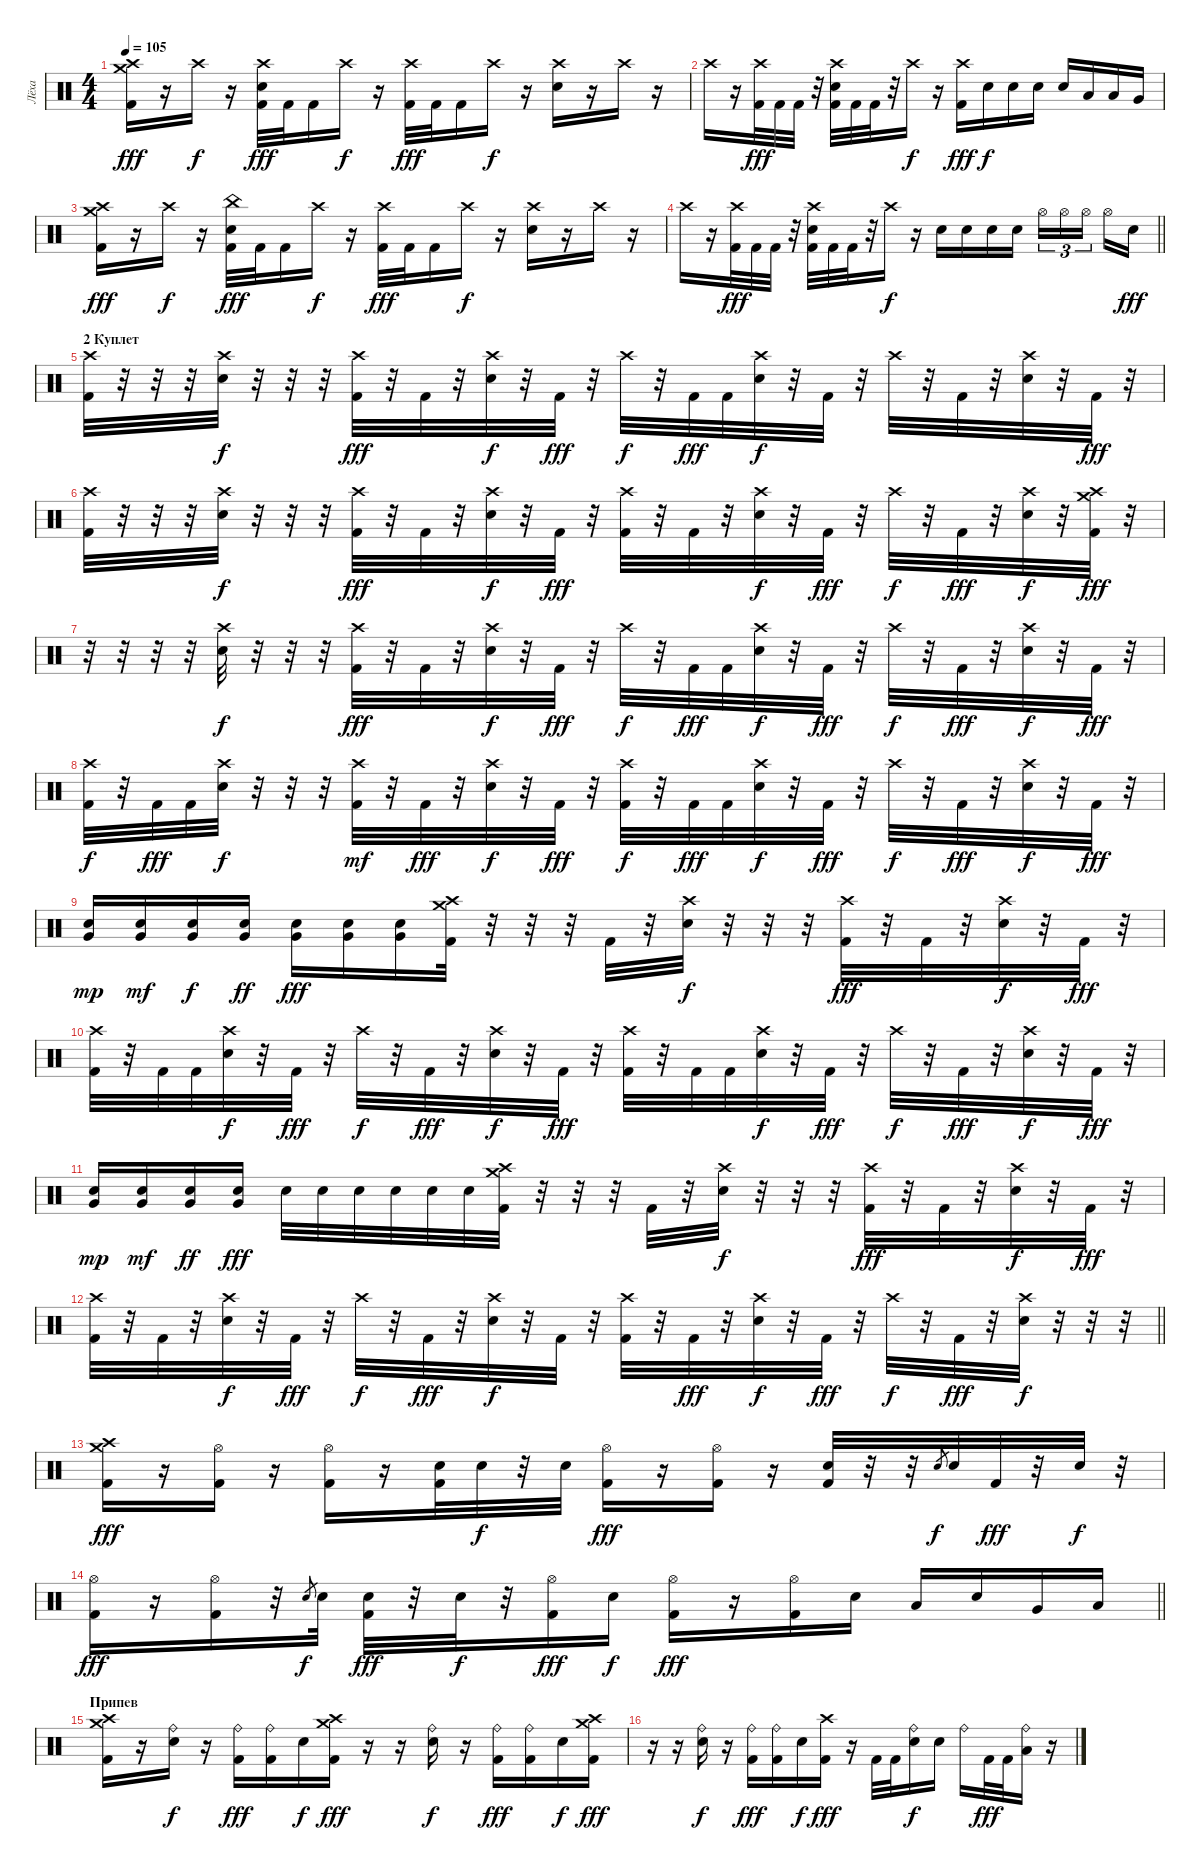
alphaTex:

\track ("Лёха" "Лёха") {solo instrument percussion}
\staff {score}
\articulation defaults
\ts (4 4)
\tempo 105
\clef neutral
\ks c
("Crash high (hit)" "Crash medium (hit)" "Kick (hit) 2").16{dy fff} r.16 "Crash high (hit)".16{dy f} r.16 ("Crash high (hit)" "Electric Snare (hit)" "Kick (hit) 2").32{dy fff} "Kick (hit) 2".32 "Kick (hit) 2".16 "Crash high (hit)".16{dy f} r.16 ("Crash high (hit)" "Kick (hit) 2").32{dy fff} "Kick (hit) 2".32 "Kick (hit) 2".16 "Crash high (hit)".16{dy f} r.16 ("Crash high (hit)" "Electric Snare (hit)").16 r.16 "Crash high (hit)".16 r.16 |
"Crash high (hit)".16 r.16 ("Crash high (hit)" "Kick (hit) 2").32{dy fff} "Kick (hit) 2".32 "Kick (hit) 2".32 r.32 ("Crash high (hit)" "Electric Snare (hit)" "Kick (hit) 2").32 "Kick (hit) 2".32 "Kick (hit) 2".32 r.32 "Crash high (hit)".16{dy f} r.16 ("Crash high (hit)" "Kick (hit) 2").16{dy fff} "Electric Snare (hit)".16{dy f} "Electric Snare (hit)".16 "Electric Snare (hit)".16 "Electric Snare (hit)".16 "Low Tom (hit)".16 "Low Tom (hit)".16 "Very Low Tom (hit)".16 |
("Crash high (hit)" "Crash medium (hit)" "Kick (hit) 2").16{dy fff} r.16 "Crash high (hit)".16{dy f} r.16 ("China (hit)" "Electric Snare (hit)" "Kick (hit) 2").32{dy fff} "Kick (hit) 2".32 "Kick (hit) 2".16 "Crash high (hit)".16{dy f} r.16 ("Crash high (hit)" "Kick (hit) 2").32{dy fff} "Kick (hit) 2".32 "Kick (hit) 2".16 "Crash high (hit)".16{dy f} r.16 ("Crash high (hit)" "Electric Snare (hit)").16 r.16 "Crash high (hit)".16 r.16 |
\barLineRight lightlight "Crash high (hit)".16
r.16 ("Crash high (hit)" "Kick (hit) 2").32{dy fff} "Kick (hit) 2".32 "Kick (hit) 2".32 r.32 ("Crash high (hit)" "Electric Snare (hit)" "Kick (hit) 2").32 "Kick (hit) 2".32 "Kick (hit) 2".32 r.32 "Crash high (hit)".16{dy f} r.16 "Electric Snare (hit)".16 "Electric Snare (hit)".16 "Electric Snare (hit)".16 "Electric Snare (hit)".16 "Hi-Hat (open)".16{tu (3 2)} "Hi-Hat (open)".16{tu (3 2)} "Hi-Hat (open)".16{tu (3 2) beam splitsecondary} "Hi-Hat (open)".16 "Electric Snare (hit)".16{dy fff} |
\section ("" "2 Куплет")
("Crash high (hit)" "Kick (hit) 2").32 r.32 r.32 r.32 ("Crash high (hit)" "Electric Snare (hit)").32{dy f} r.32 r.32 r.32 ("Crash high (hit)" "Kick (hit) 2").32{dy fff} r.32 "Kick (hit) 2".32 r.32 ("Crash high (hit)" "Electric Snare (hit)").32{dy f} r.32 "Kick (hit) 2".32{dy fff} r.32 "Crash high (hit)".32{dy f} r.32 "Kick (hit) 2".32{dy fff} "Kick (hit) 2".32 ("Crash high (hit)" "Electric Snare (hit)").32{dy f} r.32 "Kick (hit) 2".32 r.32 "Crash high (hit)".32 r.32 "Kick (hit) 2".32 r.32 ("Crash high (hit)" "Electric Snare (hit)").32 r.32 "Kick (hit) 2".32{dy fff} r.32 |
("Crash high (hit)" "Kick (hit) 2").32 r.32 r.32 r.32 ("Crash high (hit)" "Electric Snare (hit)").32{dy f} r.32 r.32 r.32 ("Crash high (hit)" "Kick (hit) 2").32{dy fff} r.32 "Kick (hit) 2".32 r.32 ("Crash high (hit)" "Electric Snare (hit)").32{dy f} r.32 "Kick (hit) 2".32{dy fff} r.32 ("Crash high (hit)" "Kick (hit) 2").32 r.32 "Kick (hit) 2".32 r.32 ("Crash high (hit)" "Electric Snare (hit)").32{dy f} r.32 "Kick (hit) 2".32{dy fff} r.32 "Crash high (hit)".32{dy f} r.32 "Kick (hit) 2".32{dy fff} r.32 ("Crash high (hit)" "Electric Snare (hit)").32{dy f} r.32 ("Crash high (hit)" "Crash medium (hit)" "Kick (hit) 2").32{dy fff} r.32 |
r.32 r.32 r.32 r.32 ("Crash high (hit)" "Electric Snare (hit)").32{dy f} r.32 r.32 r.32 ("Crash high (hit)" "Kick (hit) 2").32{dy fff} r.32 "Kick (hit) 2".32 r.32 ("Crash high (hit)" "Electric Snare (hit)").32{dy f} r.32 "Kick (hit) 2".32{dy fff} r.32 "Crash high (hit)".32{dy f} r.32 "Kick (hit) 2".32{dy fff} "Kick (hit) 2".32 ("Crash high (hit)" "Electric Snare (hit)").32{dy f} r.32 "Kick (hit) 2".32{dy fff} r.32 "Crash high (hit)".32{dy f} r.32 "Kick (hit) 2".32{dy fff} r.32 ("Crash high (hit)" "Electric Snare (hit)").32{dy f} r.32 "Kick (hit) 2".32{dy fff} r.32 |
("Crash high (hit)" "Kick (hit) 2").32{dy f} r.32 "Kick (hit) 2".32{dy fff} "Kick (hit) 2".32 ("Crash high (hit)" "Electric Snare (hit)").32{dy f} r.32 r.32 r.32 ("Crash high (hit)" "Kick (hit) 2").32{dy mf} r.32 "Kick (hit) 2".32{dy fff} r.32 ("Crash high (hit)" "Electric Snare (hit)").32{dy f} r.32 "Kick (hit) 2".32{dy fff} r.32 ("Crash high (hit)" "Kick (hit) 2").32{dy f} r.32 "Kick (hit) 2".32{dy fff} "Kick (hit) 2".32 ("Crash high (hit)" "Electric Snare (hit)").32{dy f} r.32 "Kick (hit) 2".32{dy fff} r.32 "Crash high (hit)".32{dy f} r.32 "Kick (hit) 2".32{dy fff} r.32 ("Crash high (hit)" "Electric Snare (hit)").32{dy f} r.32 "Kick (hit) 2".32{dy fff} r.32 |
("Very Low Tom (hit)" "Electric Snare (hit)").16{dy mp} ("Very Low Tom (hit)" "Electric Snare (hit)").16{dy mf} ("Very Low Tom (hit)" "Electric Snare (hit)").16{dy f} ("Very Low Tom (hit)" "Electric Snare (hit)").16{dy ff} ("Very Low Tom (hit)" "Electric Snare (hit)").16{dy fff} ("Very Low Tom (hit)" "Electric Snare (hit)").16 ("Very Low Tom (hit)" "Electric Snare (hit)").16 ("Crash medium (hit)" "Crash high (hit)" "Kick (hit) 2").32 r.32 r.32 r.32 "Kick (hit) 2".32 r.32 ("Crash high (hit)" "Electric Snare (hit)").32{dy f} r.32 r.32 r.32 ("Crash high (hit)" "Kick (hit) 2").32{dy fff} r.32 "Kick (hit) 2".32 r.32 ("Crash high (hit)" "Electric Snare (hit)").32{dy f} r.32 "Kick (hit) 2".32{dy fff} r.32 |
("Crash high (hit)" "Kick (hit) 2").32 r.32 "Kick (hit) 2".32 "Kick (hit) 2".32 ("Crash high (hit)" "Electric Snare (hit)").32{dy f} r.32 "Kick (hit) 2".32{dy fff} r.32 "Crash high (hit)".32{dy f} r.32 "Kick (hit) 2".32{dy fff} r.32 ("Crash high (hit)" "Electric Snare (hit)").32{dy f} r.32 "Kick (hit) 2".32{dy fff} r.32 ("Crash high (hit)" "Kick (hit) 2").32 r.32 "Kick (hit) 2".32 "Kick (hit) 2".32 ("Crash high (hit)" "Electric Snare (hit)").32{dy f} r.32 "Kick (hit) 2".32{dy fff} r.32 "Crash high (hit)".32{dy f} r.32 "Kick (hit) 2".32{dy fff} r.32 ("Crash high (hit)" "Electric Snare (hit)").32{dy f} r.32 "Kick (hit) 2".32{dy fff} r.32 |
("Very Low Tom (hit)" "Electric Snare (hit)").16{dy mp} ("Very Low Tom (hit)" "Electric Snare (hit)").16{dy mf} ("Very Low Tom (hit)" "Electric Snare (hit)").16{dy ff} ("Very Low Tom (hit)" "Electric Snare (hit)").16{dy fff} "Electric Snare (hit)".32 "Electric Snare (hit)".32 "Electric Snare (hit)".32 "Electric Snare (hit)".32 "Electric Snare (hit)".32 "Electric Snare (hit)".32 ("Crash medium (hit)" "Crash high (hit)" "Kick (hit) 2").32 r.32 r.32 r.32 "Kick (hit) 2".32 r.32 ("Crash high (hit)" "Electric Snare (hit)").32{dy f} r.32 r.32 r.32 ("Crash high (hit)" "Kick (hit) 2").32{dy fff} r.32 "Kick (hit) 2".32 r.32 ("Crash high (hit)" "Electric Snare (hit)").32{dy f} r.32 "Kick (hit) 2".32{dy fff} r.32 |
\barLineRight lightlight
("Crash high (hit)" "Kick (hit) 2").32 r.32 "Kick (hit) 2".32 r.32 ("Crash high (hit)" "Electric Snare (hit)").32{dy f} r.32 "Kick (hit) 2".32{dy fff} r.32 "Crash high (hit)".32{dy f} r.32 "Kick (hit) 2".32{dy fff} r.32 ("Crash high (hit)" "Electric Snare (hit)").32{dy f} r.32 "Kick (hit) 2".32 r.32 ("Crash high (hit)" "Kick (hit) 2").32 r.32 "Kick (hit) 2".32{dy fff} r.32 ("Crash high (hit)" "Electric Snare (hit)").32{dy f} r.32 "Kick (hit) 2".32{dy fff} r.32 "Crash high (hit)".32{dy f} r.32 "Kick (hit) 2".32{dy fff} r.32 ("Crash high (hit)" "Electric Snare (hit)").32{dy f} r.32 r.32 r.32 |
\section ("" "")
("Crash high (hit)" "Crash medium (hit)" "Kick (hit) 2").16{dy fff} r.16 ("Hi-Hat (open)" "Kick (hit) 2").16 r.16 ("Hi-Hat (open)" "Kick (hit) 2").16 r.16 ("Electric Snare (hit)" "Kick (hit) 2").32 "Electric Snare (hit)".32{dy f} r.32 "Electric Snare (hit)".32 ("Hi-Hat (open)" "Kick (hit) 2").16{dy fff} r.16 ("Hi-Hat (open)" "Kick (hit) 2").16 r.16 ("Electric Snare (hit)" "Kick (hit) 2").32 r.32 r.32 "Electric Snare (hit)".8{gr dy f} "Electric Snare (hit)".32 "Kick (hit) 2".32{dy fff} r.32 "Electric Snare (hit)".32{dy f} r.32 |
\barLineRight lightlight
("Hi-Hat (open)" "Kick (hit) 2").16{dy fff} r.16 ("Hi-Hat (open)" "Kick (hit) 2").16 r.32 "Electric Snare (hit)".8{gr dy f} "Electric Snare (hit)".32 ("Electric Snare (hit)" "Kick (hit) 2").32{dy fff} r.32 "Electric Snare (hit)".32{dy f} r.32 ("Hi-Hat (open)" "Kick (hit) 2").16{dy fff} "Electric Snare (hit)".16{dy f} ("Hi-Hat (open)" "Kick (hit) 2").16{dy fff} r.16 ("Hi-Hat (open)" "Kick (hit) 2").16 "Electric Snare (hit)".16 "Low Tom (hit)".16 "Electric Snare (hit)".16 "Very Low Tom (hit)".16 "Low Floor Tom (hit)".16 |
\section ("" "Припев")
("Crash high (hit)" "Crash medium (hit)" "Kick (hit) 2").16 r.16 ("Ride (bell)" "Electric Snare (hit)").16{dy f} r.16 ("Ride (bell)" "Kick (hit) 2").16{dy fff} ("Ride (bell)" "Kick (hit) 2").16 "Electric Snare (hit)".16{dy f} ("Crash high (hit)" "Crash medium (hit)" "Kick (hit) 2").16{dy fff} r.16 r.16 ("Ride (bell)" "Electric Snare (hit)").16{dy f} r.16 ("Ride (bell)" "Kick (hit) 2").16{dy fff} ("Ride (bell)" "Kick (hit) 2").16 "Electric Snare (hit)".16{dy f} ("Crash high (hit)" "Crash medium (hit)" "Kick (hit) 2").16{dy fff} |
r.16 r.16 ("Ride (bell)" "Electric Snare (hit)").16{dy f} r.16 ("Ride (bell)" "Kick (hit) 2").16{dy fff} ("Ride (bell)" "Kick (hit) 2").16 "Electric Snare (hit)".16{dy f} ("Crash high (hit)" "Kick (hit) 2").16{dy fff} r.16 "Kick (hit) 2".32 "Kick (hit) 2".32 ("Ride (bell)" "Electric Snare (hit)").16{dy f} "Electric Snare (hit)".16 "Ride (bell)".16 "Kick (hit) 2".32{dy fff} "Kick (hit) 2".32 ("Ride (bell)" "Low Tom (hit)").16 r.16
